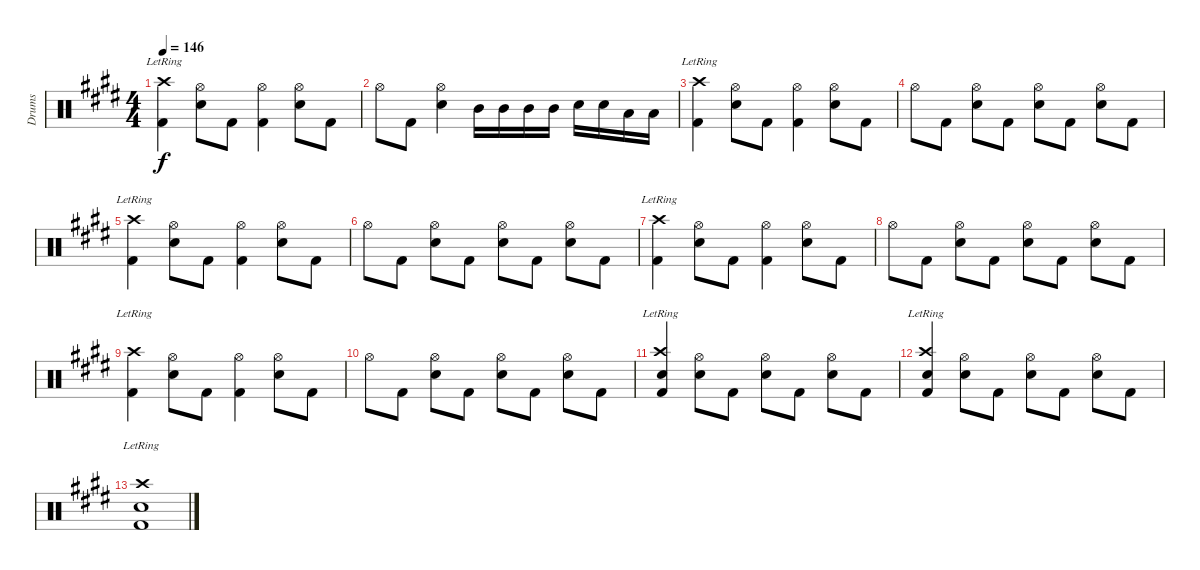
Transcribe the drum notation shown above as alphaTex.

\track ("Drums" "Drums") {instrument percussion}
\staff {score}
\articulation defaults
\ts (4 4)
\tempo 146
\clef neutral
\ks e
("Kick (hit) 2" "Crash high (hit)"{lr}).4{dy f} ("Snare (hit) 2" "Hi-Hat (open)").8 "Kick (hit) 2".8 ("Kick (hit) 2" "Hi-Hat (open)").4 ("Snare (hit) 2" "Hi-Hat (open)").8 "Kick (hit) 2".8 |
"Hi-Hat (open)".8 "Kick (hit) 2".8 ("Snare (hit) 2" "Hi-Hat (open)").4 "Mid Tom (hit)".16 "Mid Tom (hit)".16 "Mid Tom (hit)".16 "Mid Tom (hit)".16 "Snare (hit) 2".16 "Snare (hit) 2".16 "Low Floor Tom (hit)".16 "Low Floor Tom (hit)".16 |
("Kick (hit) 2" "Crash high (hit)"{lr}).4 ("Snare (hit) 2" "Hi-Hat (open)").8 "Kick (hit) 2".8 ("Kick (hit) 2" "Hi-Hat (open)").4 ("Snare (hit) 2" "Hi-Hat (open)").8 "Kick (hit) 2".8 |
"Hi-Hat (open)".8 "Kick (hit) 2".8 ("Snare (hit) 2" "Hi-Hat (open)").8 "Kick (hit) 2".8 ("Snare (hit) 2" "Hi-Hat (open)").8 "Kick (hit) 2".8 ("Snare (hit) 2" "Hi-Hat (open)").8 "Kick (hit) 2".8 |
("Kick (hit) 2" "Crash high (hit)"{lr}).4 ("Snare (hit) 2" "Hi-Hat (open)").8 "Kick (hit) 2".8 ("Kick (hit) 2" "Hi-Hat (open)").4 ("Snare (hit) 2" "Hi-Hat (open)").8 "Kick (hit) 2".8 |
"Hi-Hat (open)".8 "Kick (hit) 2".8 ("Snare (hit) 2" "Hi-Hat (open)").8 "Kick (hit) 2".8 ("Snare (hit) 2" "Hi-Hat (open)").8 "Kick (hit) 2".8 ("Snare (hit) 2" "Hi-Hat (open)").8 "Kick (hit) 2".8 |
("Kick (hit) 2" "Crash high (hit)"{lr}).4 ("Snare (hit) 2" "Hi-Hat (open)").8 "Kick (hit) 2".8 ("Kick (hit) 2" "Hi-Hat (open)").4 ("Snare (hit) 2" "Hi-Hat (open)").8 "Kick (hit) 2".8 |
"Hi-Hat (open)".8 "Kick (hit) 2".8 ("Snare (hit) 2" "Hi-Hat (open)").8 "Kick (hit) 2".8 ("Snare (hit) 2" "Hi-Hat (open)").8 "Kick (hit) 2".8 ("Snare (hit) 2" "Hi-Hat (open)").8 "Kick (hit) 2".8 |
("Kick (hit) 2" "Crash high (hit)"{lr}).4 ("Snare (hit) 2" "Hi-Hat (open)").8 "Kick (hit) 2".8 ("Kick (hit) 2" "Hi-Hat (open)").4 ("Snare (hit) 2" "Hi-Hat (open)").8 "Kick (hit) 2".8 |
"Hi-Hat (open)".8 "Kick (hit) 2".8 ("Snare (hit) 2" "Hi-Hat (open)").8 "Kick (hit) 2".8 ("Snare (hit) 2" "Hi-Hat (open)").8 "Kick (hit) 2".8 ("Snare (hit) 2" "Hi-Hat (open)").8 "Kick (hit) 2".8 |
("Kick (hit) 2" "Snare (hit) 2" "Crash high (hit)"{lr}).4 ("Snare (hit) 2" "Hi-Hat (open)").8 "Kick (hit) 2".8 ("Snare (hit) 2" "Hi-Hat (open)").8 "Kick (hit) 2".8 ("Snare (hit) 2" "Hi-Hat (open)").8 "Kick (hit) 2".8 |
("Kick (hit) 2" "Snare (hit) 2" "Crash high (hit)"{lr}).4 ("Snare (hit) 2" "Hi-Hat (open)").8 "Kick (hit) 2".8 ("Snare (hit) 2" "Hi-Hat (open)").8 "Kick (hit) 2".8 ("Snare (hit) 2" "Hi-Hat (open)").8 "Kick (hit) 2".8 |
("Kick (hit) 2" "Snare (hit) 2" "Crash high (hit)"{lr}).1
